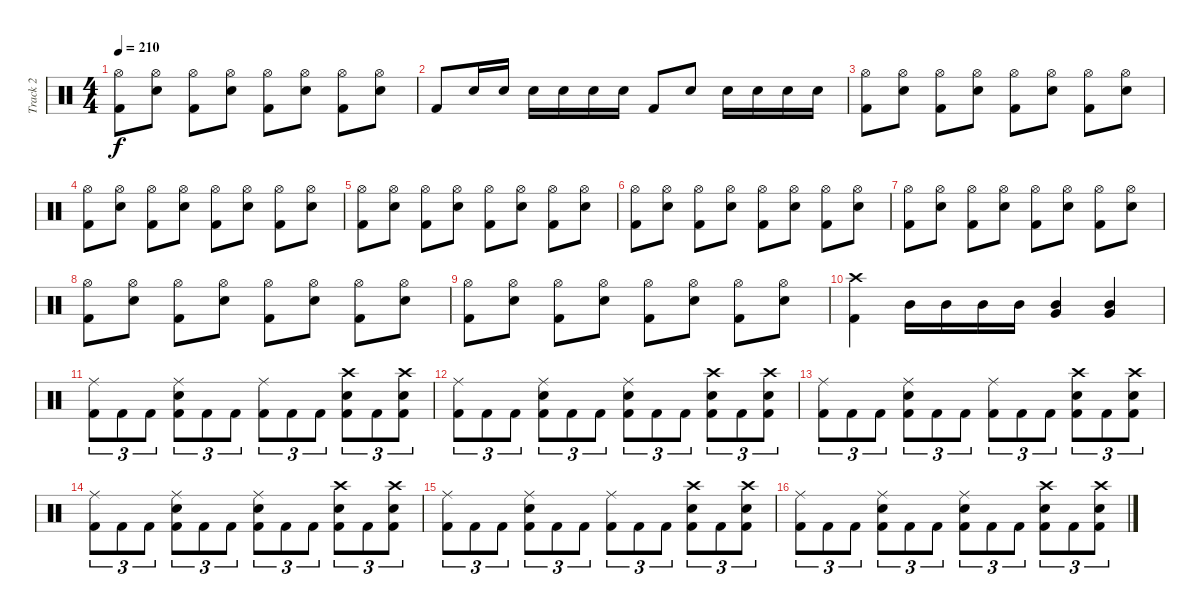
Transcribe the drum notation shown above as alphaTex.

\track ("Track 2" "Track 2") {instrument percussion}
\staff {score}
\articulation defaults
\ts (4 4)
\tempo 210
\clef neutral
\ks c
("Hi-Hat (open)" "Kick (hit) 2").8{dy f} ("Hi-Hat (open)" "Snare (hit) 2").8 ("Hi-Hat (open)" "Kick (hit) 2").8 ("Hi-Hat (open)" "Snare (hit) 2").8 ("Hi-Hat (open)" "Kick (hit) 2").8 ("Hi-Hat (open)" "Snare (hit) 2").8 ("Hi-Hat (open)" "Kick (hit) 2").8 ("Hi-Hat (open)" "Snare (hit) 2").8 |
"Kick (hit) 2".8 "Snare (hit) 2".16 "Snare (hit) 2".16 "Snare (hit) 2".16 "Snare (hit) 2".16 "Snare (hit) 2".16 "Snare (hit) 2".16 "Kick (hit) 2".8 "Snare (hit) 2".8 "Snare (hit) 2".16 "Snare (hit) 2".16 "Snare (hit) 2".16 "Snare (hit) 2".16 |
("Hi-Hat (open)" "Kick (hit) 2").8 ("Hi-Hat (open)" "Snare (hit) 2").8 ("Hi-Hat (open)" "Kick (hit) 2").8 ("Hi-Hat (open)" "Snare (hit) 2").8 ("Hi-Hat (open)" "Kick (hit) 2").8 ("Hi-Hat (open)" "Snare (hit) 2").8 ("Hi-Hat (open)" "Kick (hit) 2").8 ("Hi-Hat (open)" "Snare (hit) 2").8 |
("Hi-Hat (open)" "Kick (hit) 2").8 ("Hi-Hat (open)" "Snare (hit) 2").8 ("Hi-Hat (open)" "Kick (hit) 2").8 ("Hi-Hat (open)" "Snare (hit) 2").8 ("Hi-Hat (open)" "Kick (hit) 2").8 ("Hi-Hat (open)" "Snare (hit) 2").8 ("Hi-Hat (open)" "Kick (hit) 2").8 ("Hi-Hat (open)" "Snare (hit) 2").8 |
("Hi-Hat (open)" "Kick (hit) 2").8 ("Hi-Hat (open)" "Snare (hit) 2").8 ("Hi-Hat (open)" "Kick (hit) 2").8 ("Hi-Hat (open)" "Snare (hit) 2").8 ("Hi-Hat (open)" "Kick (hit) 2").8 ("Hi-Hat (open)" "Snare (hit) 2").8 ("Hi-Hat (open)" "Kick (hit) 2").8 ("Hi-Hat (open)" "Snare (hit) 2").8 |
("Hi-Hat (open)" "Kick (hit) 2").8 ("Hi-Hat (open)" "Snare (hit) 2").8 ("Hi-Hat (open)" "Kick (hit) 2").8 ("Hi-Hat (open)" "Snare (hit) 2").8 ("Hi-Hat (open)" "Kick (hit) 2").8 ("Hi-Hat (open)" "Snare (hit) 2").8 ("Hi-Hat (open)" "Kick (hit) 2").8 ("Hi-Hat (open)" "Snare (hit) 2").8 |
("Hi-Hat (open)" "Kick (hit) 2").8 ("Hi-Hat (open)" "Snare (hit) 2").8 ("Hi-Hat (open)" "Kick (hit) 2").8 ("Hi-Hat (open)" "Snare (hit) 2").8 ("Hi-Hat (open)" "Kick (hit) 2").8 ("Hi-Hat (open)" "Snare (hit) 2").8 ("Hi-Hat (open)" "Kick (hit) 2").8 ("Hi-Hat (open)" "Snare (hit) 2").8 |
("Hi-Hat (open)" "Kick (hit) 2").8 ("Hi-Hat (open)" "Snare (hit) 2").8 ("Hi-Hat (open)" "Kick (hit) 2").8 ("Hi-Hat (open)" "Snare (hit) 2").8 ("Hi-Hat (open)" "Kick (hit) 2").8 ("Hi-Hat (open)" "Snare (hit) 2").8 ("Hi-Hat (open)" "Kick (hit) 2").8 ("Hi-Hat (open)" "Snare (hit) 2").8 |
("Hi-Hat (open)" "Kick (hit) 2").8 ("Hi-Hat (open)" "Snare (hit) 2").8 ("Hi-Hat (open)" "Kick (hit) 2").8 ("Hi-Hat (open)" "Snare (hit) 2").8 ("Hi-Hat (open)" "Kick (hit) 2").8 ("Hi-Hat (open)" "Snare (hit) 2").8 ("Hi-Hat (open)" "Kick (hit) 2").8 ("Hi-Hat (open)" "Snare (hit) 2").8 |
("Crash high (hit)" "Kick (hit) 2").4 "Mid Tom (hit)".16 "Mid Tom (hit)".16 "Mid Tom (hit)".16 "Mid Tom (hit)".16 ("Mid Tom (hit)" "Very Low Tom (hit)").4 ("Mid Tom (hit)" "Very Low Tom (hit)").4 |
("Ride (middle)" "Kick (hit) 2").8{tu (3 2)} "Kick (hit) 2".8{tu (3 2)} "Kick (hit) 2".8{tu (3 2)} ("Ride (middle)" "Snare (hit) 2" "Kick (hit) 2").8{tu (3 2)} "Kick (hit) 2".8{tu (3 2)} "Kick (hit) 2".8{tu (3 2)} ("Ride (middle)" "Kick (hit) 2").8{tu (3 2)} "Kick (hit) 2".8{tu (3 2)} "Kick (hit) 2".8{tu (3 2)} ("Crash high (hit)" "Snare (hit) 2" "Kick (hit) 2").8{tu (3 2)} "Kick (hit) 2".8{tu (3 2)} ("Crash high (hit)" "Snare (hit) 2" "Kick (hit) 2").8{tu (3 2)} |
("Ride (middle)" "Kick (hit) 2").8{tu (3 2)} "Kick (hit) 2".8{tu (3 2)} "Kick (hit) 2".8{tu (3 2)} ("Ride (middle)" "Snare (hit) 2" "Kick (hit) 2").8{tu (3 2)} "Kick (hit) 2".8{tu (3 2)} "Kick (hit) 2".8{tu (3 2)} ("Ride (middle)" "Snare (hit) 2" "Kick (hit) 2").8{tu (3 2)} "Kick (hit) 2".8{tu (3 2)} "Kick (hit) 2".8{tu (3 2)} ("Crash high (hit)" "Snare (hit) 2" "Kick (hit) 2").8{tu (3 2)} "Kick (hit) 2".8{tu (3 2)} ("Crash high (hit)" "Snare (hit) 2" "Kick (hit) 2").8{tu (3 2)} |
("Ride (middle)" "Kick (hit) 2").8{tu (3 2)} "Kick (hit) 2".8{tu (3 2)} "Kick (hit) 2".8{tu (3 2)} ("Ride (middle)" "Snare (hit) 2" "Kick (hit) 2").8{tu (3 2)} "Kick (hit) 2".8{tu (3 2)} "Kick (hit) 2".8{tu (3 2)} ("Ride (middle)" "Kick (hit) 2").8{tu (3 2)} "Kick (hit) 2".8{tu (3 2)} "Kick (hit) 2".8{tu (3 2)} ("Crash high (hit)" "Snare (hit) 2" "Kick (hit) 2").8{tu (3 2)} "Kick (hit) 2".8{tu (3 2)} ("Crash high (hit)" "Snare (hit) 2" "Kick (hit) 2").8{tu (3 2)} |
("Ride (middle)" "Kick (hit) 2").8{tu (3 2)} "Kick (hit) 2".8{tu (3 2)} "Kick (hit) 2".8{tu (3 2)} ("Ride (middle)" "Snare (hit) 2" "Kick (hit) 2").8{tu (3 2)} "Kick (hit) 2".8{tu (3 2)} "Kick (hit) 2".8{tu (3 2)} ("Ride (middle)" "Snare (hit) 2" "Kick (hit) 2").8{tu (3 2)} "Kick (hit) 2".8{tu (3 2)} "Kick (hit) 2".8{tu (3 2)} ("Crash high (hit)" "Snare (hit) 2" "Kick (hit) 2").8{tu (3 2)} "Kick (hit) 2".8{tu (3 2)} ("Crash high (hit)" "Snare (hit) 2" "Kick (hit) 2").8{tu (3 2)} |
("Ride (middle)" "Kick (hit) 2").8{tu (3 2)} "Kick (hit) 2".8{tu (3 2)} "Kick (hit) 2".8{tu (3 2)} ("Ride (middle)" "Snare (hit) 2" "Kick (hit) 2").8{tu (3 2)} "Kick (hit) 2".8{tu (3 2)} "Kick (hit) 2".8{tu (3 2)} ("Ride (middle)" "Kick (hit) 2").8{tu (3 2)} "Kick (hit) 2".8{tu (3 2)} "Kick (hit) 2".8{tu (3 2)} ("Crash high (hit)" "Snare (hit) 2" "Kick (hit) 2").8{tu (3 2)} "Kick (hit) 2".8{tu (3 2)} ("Crash high (hit)" "Snare (hit) 2" "Kick (hit) 2").8{tu (3 2)} |
("Ride (middle)" "Kick (hit) 2").8{tu (3 2)} "Kick (hit) 2".8{tu (3 2)} "Kick (hit) 2".8{tu (3 2)} ("Ride (middle)" "Snare (hit) 2" "Kick (hit) 2").8{tu (3 2)} "Kick (hit) 2".8{tu (3 2)} "Kick (hit) 2".8{tu (3 2)} ("Ride (middle)" "Snare (hit) 2" "Kick (hit) 2").8{tu (3 2)} "Kick (hit) 2".8{tu (3 2)} "Kick (hit) 2".8{tu (3 2)} ("Crash high (hit)" "Snare (hit) 2" "Kick (hit) 2").8{tu (3 2)} "Kick (hit) 2".8{tu (3 2)} ("Crash high (hit)" "Snare (hit) 2" "Kick (hit) 2").8{tu (3 2)}
